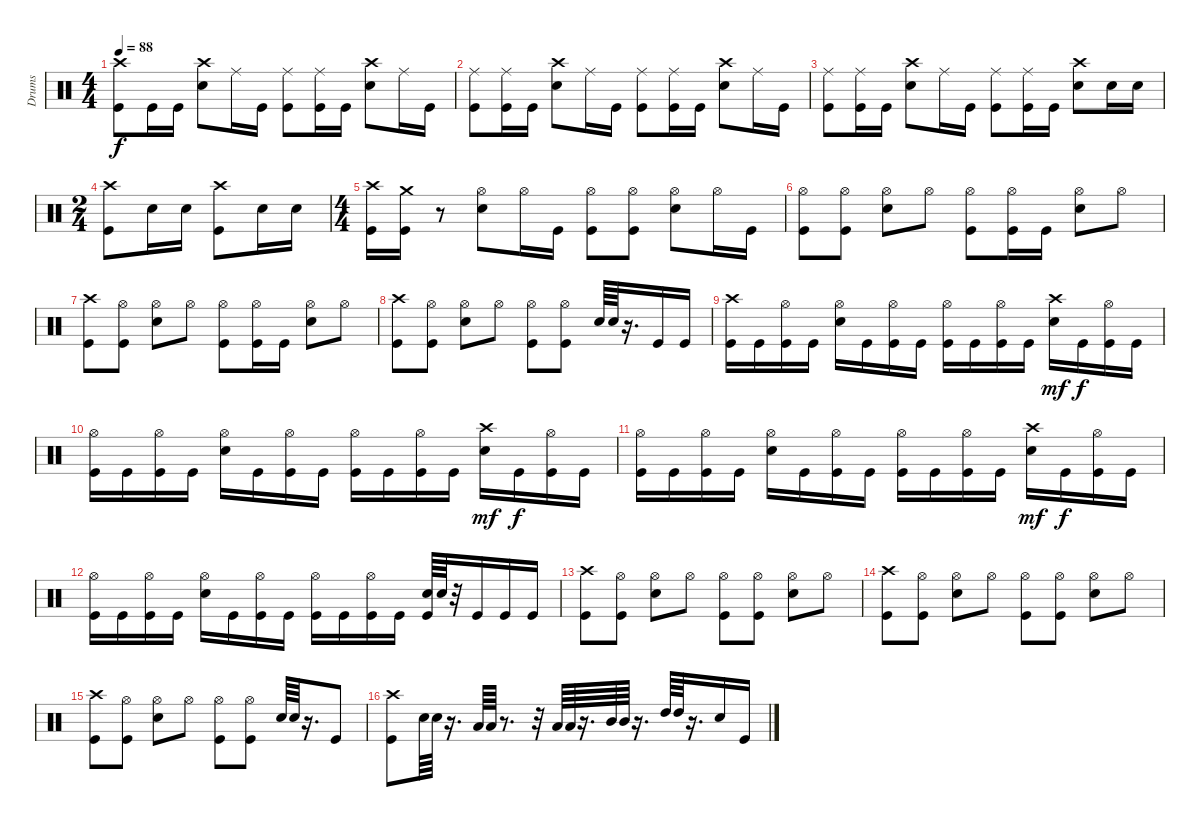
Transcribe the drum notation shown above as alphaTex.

\track ("Drums" "Drums") {instrument percussion}
\staff {score}
\articulation defaults
\ts (4 4)
\tempo 88
\clef neutral
\ks c
("Crash high (hit)" "Kick (hit)").8{dy f} "Kick (hit)".16 "Kick (hit)".16 ("Crash high (hit)" "Snare (hit) 2").8 "Ride (middle)".16 "Kick (hit)".16 ("Ride (middle)" "Kick (hit)").8 ("Ride (middle)" "Kick (hit)").16 "Kick (hit)".16 ("Crash high (hit)" "Snare (hit) 2").8 "Ride (middle)".16 "Kick (hit)".16 |
("Ride (middle)" "Kick (hit)").8 ("Ride (middle)" "Kick (hit)").16 "Kick (hit)".16 ("Crash high (hit)" "Snare (hit) 2").8 "Ride (middle)".16 "Kick (hit)".16 ("Ride (middle)" "Kick (hit)").8 ("Ride (middle)" "Kick (hit)").16 "Kick (hit)".16 ("Crash high (hit)" "Snare (hit) 2").8 "Ride (middle)".16 "Kick (hit)".16 |
("Ride (middle)" "Kick (hit)").8 ("Ride (middle)" "Kick (hit)").16 "Kick (hit)".16 ("Crash high (hit)" "Snare (hit) 2").8 "Ride (middle)".16 "Kick (hit)".16 ("Ride (middle)" "Kick (hit)").8 ("Ride (middle)" "Kick (hit)").16 "Kick (hit)".16 ("Crash high (hit)" "Snare (hit) 2").8 "Snare (hit) 2".16 "Snare (hit) 2".16 |
\ts (2 4)
("Crash high (hit)" "Kick (hit)").8 "Snare (hit) 2".16 "Snare (hit) 2".16 ("Crash high (hit)" "Kick (hit)").8 "Snare (hit) 2".16 "Snare (hit) 2".16 |
\ts (4 4)
("Crash high (hit)" "Kick (hit)").16 ("Crash medium (hit)" "Kick (hit)").16 r.8 ("Hi-Hat (open)" "Snare (hit) 2").8 "Hi-Hat (open)".16 "Kick (hit)".16 ("Hi-Hat (open)" "Kick (hit)").8 ("Hi-Hat (open)" "Kick (hit)").8 ("Hi-Hat (open)" "Snare (hit) 2").8 "Hi-Hat (open)".16 "Kick (hit)".16 |
("Hi-Hat (open)" "Kick (hit)").8 ("Hi-Hat (open)" "Kick (hit)").8 ("Hi-Hat (open)" "Snare (hit) 2").8 "Hi-Hat (open)".8 ("Hi-Hat (open)" "Kick (hit)").8 ("Hi-Hat (open)" "Kick (hit)").16 "Kick (hit)".16 ("Hi-Hat (open)" "Snare (hit) 2").8 "Hi-Hat (open)".8 |
("Crash high (hit)" "Kick (hit)").8 ("Hi-Hat (open)" "Kick (hit)").8 ("Hi-Hat (open)" "Snare (hit) 2").8 "Hi-Hat (open)".8 ("Hi-Hat (open)" "Kick (hit)").8 ("Hi-Hat (open)" "Kick (hit)").16 "Kick (hit)".16 ("Hi-Hat (open)" "Snare (hit) 2").8 "Hi-Hat (open)".8 |
("Crash high (hit)" "Kick (hit)").8 ("Hi-Hat (open)" "Kick (hit)").8 ("Hi-Hat (open)" "Snare (hit) 2").8 "Hi-Hat (open)".8 ("Hi-Hat (open)" "Kick (hit)").8 ("Hi-Hat (open)" "Kick (hit)").8 "Snare (hit) 2".64 "Snare (hit) 2".64 r.16{d} "Kick (hit)".16 "Kick (hit)".16 |
("Crash high (hit)" "Kick (hit)").16 "Kick (hit)".16 ("Hi-Hat (open)" "Kick (hit)").16 "Kick (hit)".16 ("Hi-Hat (open)" "Snare (hit) 2").16 "Kick (hit)".16 ("Hi-Hat (open)" "Kick (hit)").16 "Kick (hit)".16 ("Hi-Hat (open)" "Kick (hit)").16 "Kick (hit)".16 ("Hi-Hat (open)" "Kick (hit)").16 "Kick (hit)".16 ("Crash high (hit)" "Snare (hit) 2").16{dy mf} "Kick (hit)".16{dy f} ("Hi-Hat (open)" "Kick (hit)").16 "Kick (hit)".16 |
("Hi-Hat (open)" "Kick (hit)").16 "Kick (hit)".16 ("Hi-Hat (open)" "Kick (hit)").16 "Kick (hit)".16 ("Hi-Hat (open)" "Snare (hit) 2").16 "Kick (hit)".16 ("Hi-Hat (open)" "Kick (hit)").16 "Kick (hit)".16 ("Hi-Hat (open)" "Kick (hit)").16 "Kick (hit)".16 ("Hi-Hat (open)" "Kick (hit)").16 "Kick (hit)".16 ("Crash high (hit)" "Snare (hit) 2").16{dy mf} "Kick (hit)".16{dy f} ("Hi-Hat (open)" "Kick (hit)").16 "Kick (hit)".16 |
("Hi-Hat (open)" "Kick (hit)").16 "Kick (hit)".16 ("Hi-Hat (open)" "Kick (hit)").16 "Kick (hit)".16 ("Hi-Hat (open)" "Snare (hit) 2").16 "Kick (hit)".16 ("Hi-Hat (open)" "Kick (hit)").16 "Kick (hit)".16 ("Hi-Hat (open)" "Kick (hit)").16 "Kick (hit)".16 ("Hi-Hat (open)" "Kick (hit)").16 "Kick (hit)".16 ("Crash high (hit)" "Snare (hit) 2").16{dy mf} "Kick (hit)".16{dy f} ("Hi-Hat (open)" "Kick (hit)").16 "Kick (hit)".16 |
("Hi-Hat (open)" "Kick (hit)").16 "Kick (hit)".16 ("Hi-Hat (open)" "Kick (hit)").16 "Kick (hit)".16 ("Hi-Hat (open)" "Snare (hit) 2").16 "Kick (hit)".16 ("Hi-Hat (open)" "Kick (hit)").16 "Kick (hit)".16 ("Hi-Hat (open)" "Kick (hit)").16 "Kick (hit)".16 ("Hi-Hat (open)" "Kick (hit)").16 "Kick (hit)".16 ("Snare (hit) 2" "Kick (hit)").64 "Snare (hit) 2".64 r.32 "Kick (hit)".16 "Kick (hit)".16 "Kick (hit)".16 |
("Crash high (hit)" "Kick (hit)").8 ("Hi-Hat (open)" "Kick (hit)").8 ("Hi-Hat (open)" "Snare (hit) 2").8 "Hi-Hat (open)".8 ("Hi-Hat (open)" "Kick (hit)").8 ("Hi-Hat (open)" "Kick (hit)").8 ("Hi-Hat (open)" "Snare (hit) 2").8 "Hi-Hat (open)".8 |
("Crash high (hit)" "Kick (hit)").8 ("Hi-Hat (open)" "Kick (hit)").8 ("Hi-Hat (open)" "Snare (hit) 2").8 "Hi-Hat (open)".8 ("Hi-Hat (open)" "Kick (hit)").8 ("Hi-Hat (open)" "Kick (hit)").8 ("Hi-Hat (open)" "Snare (hit) 2").8 "Hi-Hat (open)".8 |
("Crash high (hit)" "Kick (hit)").8 ("Hi-Hat (open)" "Kick (hit)").8 ("Hi-Hat (open)" "Snare (hit) 2").8 "Hi-Hat (open)".8 ("Hi-Hat (open)" "Kick (hit)").8 ("Hi-Hat (open)" "Kick (hit)").8 "Snare (hit) 2".64 "Snare (hit) 2".64 r.16{d} "Kick (hit)".8 |
("Crash high (hit)" "Kick (hit)").8 "Snare (hit) 2".64 "Snare (hit) 2".64 r.16{d} "Low Tom (hit)".64 "Low Tom (hit)".64 r.8{d} r.32 "Low Tom (hit)".64 "Low Tom (hit)".64 r.16{d} "Mid Tom (hit)".64 "Mid Tom (hit)".64 r.16{d} "High Tom (hit)".64 "High Tom (hit)".64 r.16{d} "Snare (hit) 2".16 "Kick (hit)".16
